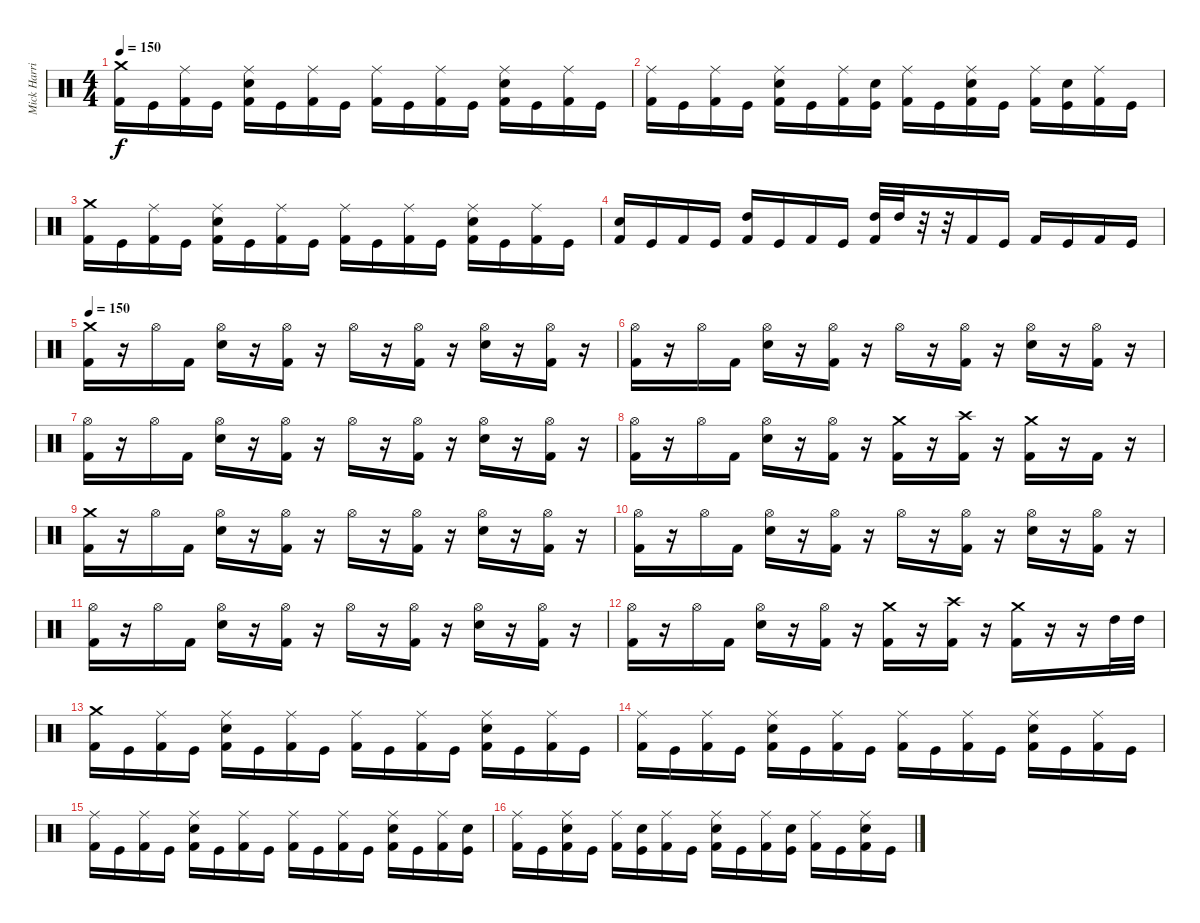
\track ("Mick Harris (Drums)" "Mick Harri") {instrument percussion}
\staff {score}
\articulation defaults
\ts (4 4)
\tempo 150
\clef neutral
\ks c
("Kick (hit) 2" "Crash medium (hit)").16{dy f} "Kick (hit)".16 ("Kick (hit) 2" "Ride (middle)").16 "Kick (hit)".16 ("Kick (hit) 2" "Ride (middle)" "Electric Snare (hit)").16 "Kick (hit)".16 ("Kick (hit) 2" "Ride (middle)").16 "Kick (hit)".16 ("Kick (hit) 2" "Ride (middle)").16 "Kick (hit)".16 ("Kick (hit) 2" "Ride (middle)").16 "Kick (hit)".16 ("Kick (hit) 2" "Ride (middle)" "Electric Snare (hit)").16 "Kick (hit)".16 ("Kick (hit) 2" "Ride (middle)").16 "Kick (hit)".16 |
("Kick (hit) 2" "Ride (middle)").16 "Kick (hit)".16 ("Kick (hit) 2" "Ride (middle)").16 "Kick (hit)".16 ("Kick (hit) 2" "Ride (middle)" "Electric Snare (hit)").16 "Kick (hit)".16 ("Kick (hit) 2" "Ride (middle)").16 ("Kick (hit)" "Electric Snare (hit)").16 ("Kick (hit) 2" "Ride (middle)").16 "Kick (hit)".16 ("Kick (hit) 2" "Ride (middle)" "Electric Snare (hit)").16 "Kick (hit)".16 ("Kick (hit) 2" "Ride (middle)").16 ("Kick (hit)" "Electric Snare (hit)").16 ("Kick (hit) 2" "Ride (middle)").16 "Kick (hit)".16 |
("Kick (hit) 2" "Crash medium (hit)").16 "Kick (hit)".16 ("Kick (hit) 2" "Ride (middle)").16 "Kick (hit)".16 ("Kick (hit) 2" "Ride (middle)" "Electric Snare (hit)").16 "Kick (hit)".16 ("Kick (hit) 2" "Ride (middle)").16 "Kick (hit)".16 ("Kick (hit) 2" "Ride (middle)").16 "Kick (hit)".16 ("Kick (hit) 2" "Ride (middle)").16 "Kick (hit)".16 ("Kick (hit) 2" "Ride (middle)" "Electric Snare (hit)").16 "Kick (hit)".16 ("Kick (hit) 2" "Ride (middle)").16 "Kick (hit)".16 |
("Kick (hit) 2" "Electric Snare (hit)").16 "Kick (hit)".16 "Kick (hit) 2".16 "Kick (hit)".16 ("Kick (hit) 2" "High Tom (hit)").16 "Kick (hit)".16 "Kick (hit) 2".16 "Kick (hit)".16 ("Kick (hit) 2" "High Tom (hit)").32 "High Tom (hit)".32 r.32 r.32 "Kick (hit) 2".16 "Kick (hit)".16 "Kick (hit) 2".16 "Kick (hit)".16 "Kick (hit) 2".16 "Kick (hit)".16 |
\tempo 150
("Kick (hit) 2" "Crash medium (hit)").16 r.16 "Hi-Hat (open)".16 "Kick (hit) 2".16 ("Electric Snare (hit)" "Hi-Hat (open)").16 r.16 ("Kick (hit) 2" "Hi-Hat (open)").16 r.16 "Hi-Hat (open)".16 r.16 ("Kick (hit) 2" "Hi-Hat (open)").16 r.16 ("Electric Snare (hit)" "Hi-Hat (open)").16 r.16 ("Kick (hit) 2" "Hi-Hat (open)").16 r.16 |
("Kick (hit) 2" "Hi-Hat (open)").16 r.16 "Hi-Hat (open)".16 "Kick (hit) 2".16 ("Electric Snare (hit)" "Hi-Hat (open)").16 r.16 ("Kick (hit) 2" "Hi-Hat (open)").16 r.16 "Hi-Hat (open)".16 r.16 ("Kick (hit) 2" "Hi-Hat (open)").16 r.16 ("Electric Snare (hit)" "Hi-Hat (open)").16 r.16 ("Kick (hit) 2" "Hi-Hat (open)").16 r.16 |
("Kick (hit) 2" "Hi-Hat (open)").16 r.16 "Hi-Hat (open)".16 "Kick (hit) 2".16 ("Electric Snare (hit)" "Hi-Hat (open)").16 r.16 ("Kick (hit) 2" "Hi-Hat (open)").16 r.16 "Hi-Hat (open)".16 r.16 ("Kick (hit) 2" "Hi-Hat (open)").16 r.16 ("Electric Snare (hit)" "Hi-Hat (open)").16 r.16 ("Kick (hit) 2" "Hi-Hat (open)").16 r.16 |
("Kick (hit) 2" "Hi-Hat (open)").16 r.16 "Hi-Hat (open)".16 "Kick (hit) 2".16 ("Electric Snare (hit)" "Hi-Hat (open)").16 r.16 ("Kick (hit) 2" "Hi-Hat (open)").16 r.16 ("Kick (hit) 2" "Crash medium (hit)").16 r.16 ("Kick (hit) 2" "Crash high (hit)").16 r.16 ("Kick (hit) 2" "Crash medium (hit)").16 r.16 "Kick (hit) 2".16 r.16 |
("Kick (hit) 2" "Crash medium (hit)").16 r.16 "Hi-Hat (open)".16 "Kick (hit) 2".16 ("Electric Snare (hit)" "Hi-Hat (open)").16 r.16 ("Kick (hit) 2" "Hi-Hat (open)").16 r.16 "Hi-Hat (open)".16 r.16 ("Kick (hit) 2" "Hi-Hat (open)").16 r.16 ("Electric Snare (hit)" "Hi-Hat (open)").16 r.16 ("Kick (hit) 2" "Hi-Hat (open)").16 r.16 |
("Kick (hit) 2" "Hi-Hat (open)").16 r.16 "Hi-Hat (open)".16 "Kick (hit) 2".16 ("Electric Snare (hit)" "Hi-Hat (open)").16 r.16 ("Kick (hit) 2" "Hi-Hat (open)").16 r.16 "Hi-Hat (open)".16 r.16 ("Kick (hit) 2" "Hi-Hat (open)").16 r.16 ("Electric Snare (hit)" "Hi-Hat (open)").16 r.16 ("Kick (hit) 2" "Hi-Hat (open)").16 r.16 |
("Kick (hit) 2" "Hi-Hat (open)").16 r.16 "Hi-Hat (open)".16 "Kick (hit) 2".16 ("Electric Snare (hit)" "Hi-Hat (open)").16 r.16 ("Kick (hit) 2" "Hi-Hat (open)").16 r.16 "Hi-Hat (open)".16 r.16 ("Kick (hit) 2" "Hi-Hat (open)").16 r.16 ("Electric Snare (hit)" "Hi-Hat (open)").16 r.16 ("Kick (hit) 2" "Hi-Hat (open)").16 r.16 |
("Kick (hit) 2" "Hi-Hat (open)").16 r.16 "Hi-Hat (open)".16 "Kick (hit) 2".16 ("Electric Snare (hit)" "Hi-Hat (open)").16 r.16 ("Kick (hit) 2" "Hi-Hat (open)").16 r.16 ("Kick (hit) 2" "Crash medium (hit)").16 r.16 ("Kick (hit) 2" "Crash high (hit)").16 r.16 ("Kick (hit) 2" "Crash medium (hit)").16 r.16 r.16 "High Tom (hit)".32 "High Tom (hit)".32 |
("Kick (hit) 2" "Crash medium (hit)").16 "Kick (hit)".16 ("Kick (hit) 2" "Ride (middle)").16 "Kick (hit)".16 ("Kick (hit) 2" "Ride (middle)" "Electric Snare (hit)").16 "Kick (hit)".16 ("Kick (hit) 2" "Ride (middle)").16 "Kick (hit)".16 ("Kick (hit) 2" "Ride (middle)").16 "Kick (hit)".16 ("Kick (hit) 2" "Ride (middle)").16 "Kick (hit)".16 ("Kick (hit) 2" "Ride (middle)" "Electric Snare (hit)").16 "Kick (hit)".16 ("Kick (hit) 2" "Ride (middle)").16 "Kick (hit)".16 |
("Kick (hit) 2" "Ride (middle)").16 "Kick (hit)".16 ("Kick (hit) 2" "Ride (middle)").16 "Kick (hit)".16 ("Kick (hit) 2" "Ride (middle)" "Electric Snare (hit)").16 "Kick (hit)".16 ("Kick (hit) 2" "Ride (middle)").16 "Kick (hit)".16 ("Kick (hit) 2" "Ride (middle)").16 "Kick (hit)".16 ("Kick (hit) 2" "Ride (middle)").16 "Kick (hit)".16 ("Kick (hit) 2" "Ride (middle)" "Electric Snare (hit)").16 "Kick (hit)".16 ("Kick (hit) 2" "Ride (middle)").16 "Kick (hit)".16 |
("Kick (hit) 2" "Ride (middle)").16 "Kick (hit)".16 ("Kick (hit) 2" "Ride (middle)").16 "Kick (hit)".16 ("Kick (hit) 2" "Ride (middle)" "Electric Snare (hit)").16 "Kick (hit)".16 ("Kick (hit) 2" "Ride (middle)").16 "Kick (hit)".16 ("Kick (hit) 2" "Ride (middle)").16 "Kick (hit)".16 ("Kick (hit) 2" "Ride (middle)").16 "Kick (hit)".16 ("Kick (hit) 2" "Ride (middle)" "Electric Snare (hit)").16 "Kick (hit)".16 ("Kick (hit) 2" "Ride (middle)").16 ("Kick (hit)" "Electric Snare (hit)").16 |
("Kick (hit) 2" "Ride (middle)").16 "Kick (hit)".16 ("Kick (hit) 2" "Ride (middle)" "Electric Snare (hit)").16 "Kick (hit)".16 ("Kick (hit) 2" "Ride (middle)").16 ("Kick (hit)" "Electric Snare (hit)").16 ("Kick (hit) 2" "Ride (middle)").16 "Kick (hit)".16 ("Kick (hit) 2" "Ride (middle)" "Electric Snare (hit)").16 "Kick (hit)".16 ("Kick (hit) 2" "Ride (middle)").16 ("Kick (hit)" "Electric Snare (hit)").16 ("Kick (hit) 2" "Ride (middle)").16 "Kick (hit)".16 ("Kick (hit) 2" "Ride (middle)" "Electric Snare (hit)").16 "Kick (hit)".16
